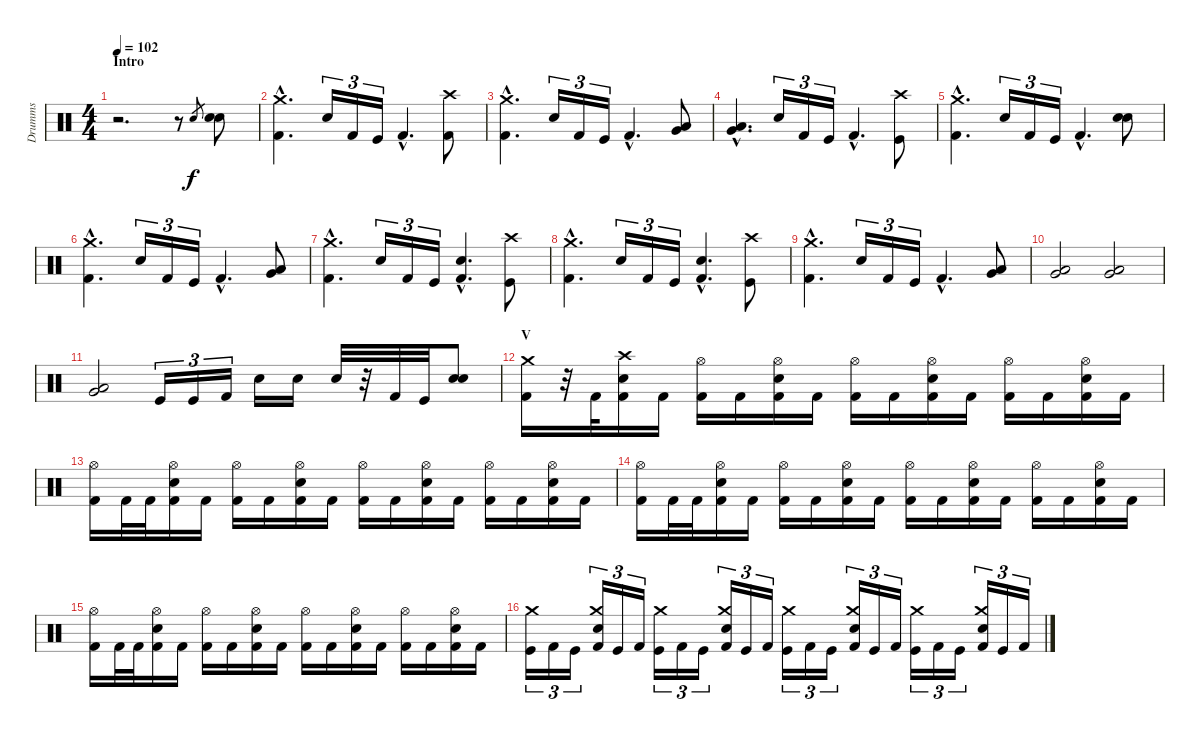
\track ("Drumms" "Drumms") {instrument percussion}
\staff {score}
\articulation defaults
\ts (4 4)
\section ("" "Intro")
\tempo 102
\clef neutral
\ks c
r.2{d dy f} r.8 "Electric Snare (hit)".8{gr} ("Electric Snare (hit)" "Snare (hit) 2").8 |
("Crash medium (hit)"{hac} "Kick (hit) 2"{hac}).4{d} "Snare (hit) 2".16{tu (3 2)} "Kick (hit) 2".16{tu (3 2)} "Kick (hit)".16{tu (3 2)} "Kick (hit) 2"{hac}.4{d} ("Crash high (hit)" "Kick (hit) 2").8 |
("Crash medium (hit)"{hac} "Kick (hit) 2"{hac}).4{d} "Snare (hit) 2".16{tu (3 2)} "Kick (hit) 2".16{tu (3 2)} "Kick (hit)".16{tu (3 2)} "Kick (hit) 2"{hac}.4{d} ("Very Low Tom (hit)" "Low Tom (hit)").8 |
("Very Low Tom (hit)"{hac} "Low Tom (hit)"{hac}).4{d} "Snare (hit) 2".16{tu (3 2)} "Kick (hit) 2".16{tu (3 2)} "Kick (hit)".16{tu (3 2)} "Kick (hit) 2"{hac}.4{d} ("Crash high (hit)" "Kick (hit)").8 |
("Crash medium (hit)"{hac} "Kick (hit) 2"{hac}).4{d} "Snare (hit) 2".16{tu (3 2)} "Kick (hit) 2".16{tu (3 2)} "Kick (hit)".16{tu (3 2)} "Kick (hit) 2"{hac}.4{d} ("Snare (hit) 2" "Snare (hit) 2").8 |
("Crash medium (hit)"{hac} "Kick (hit) 2"{hac}).4{d} "Snare (hit) 2".16{tu (3 2)} "Kick (hit) 2".16{tu (3 2)} "Kick (hit)".16{tu (3 2)} "Kick (hit) 2"{hac}.4{d} ("Low Tom (hit)" "Very Low Tom (hit)").8 |
("Crash medium (hit)"{hac} "Kick (hit) 2"{hac}).4{d} "Snare (hit) 2".16{tu (3 2)} "Kick (hit) 2".16{tu (3 2)} "Kick (hit)".16{tu (3 2)} ("Snare (hit) 2"{hac} "Kick (hit) 2"{hac}).4{d} ("Crash high (hit)" "Kick (hit)").8 |
("Crash medium (hit)"{hac} "Kick (hit) 2"{hac}).4{d} "Snare (hit) 2".16{tu (3 2)} "Kick (hit) 2".16{tu (3 2)} "Kick (hit)".16{tu (3 2)} ("Snare (hit) 2"{hac} "Kick (hit) 2"{hac}).4{d} ("Crash high (hit)" "Kick (hit)").8 |
("Crash medium (hit)"{hac} "Kick (hit) 2"{hac}).4{d} "Snare (hit) 2".16{tu (3 2)} "Kick (hit) 2".16{tu (3 2)} "Kick (hit)".16{tu (3 2)} "Kick (hit) 2"{hac}.4{d} ("Very Low Tom (hit)" "Low Tom (hit)").8 |
("Very Low Tom (hit)" "Low Tom (hit)").2 ("Very Low Tom (hit)" "Low Tom (hit)").2 |
("Low Tom (hit)" "Very Low Tom (hit)").2 "Kick (hit)".16{tu (3 2)} "Kick (hit)".16{tu (3 2)} "Kick (hit) 2".16{tu (3 2)} "Snare (hit) 2".16 "Snare (hit) 2".16 "Snare (hit) 2".32 r.32 "Kick (hit) 2".32 "Kick (hit)".32 ("Snare (hit) 2" "Snare (hit) 2").8 |
\section ("" "V")
("Crash medium (hit)" "Kick (hit) 2").16 r.32 "Kick (hit) 2".32 ("Crash high (hit)" "Snare (hit) 2" "Kick (hit) 2").16 "Kick (hit) 2".16 ("Hi-Hat (open)" "Kick (hit) 2").16 "Kick (hit) 2".16 ("Hi-Hat (open)" "Snare (hit) 2" "Kick (hit) 2").16 "Kick (hit) 2".16 ("Hi-Hat (open)" "Kick (hit) 2").16 "Kick (hit) 2".16 ("Hi-Hat (open)" "Snare (hit) 2" "Kick (hit) 2").16 "Kick (hit) 2".16 ("Hi-Hat (open)" "Kick (hit) 2").16 "Kick (hit) 2".16 ("Hi-Hat (open)" "Snare (hit) 2" "Kick (hit) 2").16 "Kick (hit) 2".16 |
("Hi-Hat (open)" "Kick (hit) 2").16 "Kick (hit) 2".32 "Kick (hit) 2".32 ("Hi-Hat (open)" "Snare (hit) 2" "Kick (hit) 2").16 "Kick (hit) 2".16 ("Hi-Hat (open)" "Kick (hit) 2").16 "Kick (hit) 2".16 ("Hi-Hat (open)" "Snare (hit) 2" "Kick (hit) 2").16 "Kick (hit) 2".16 ("Hi-Hat (open)" "Kick (hit) 2").16 "Kick (hit) 2".16 ("Hi-Hat (open)" "Snare (hit) 2" "Kick (hit) 2").16 "Kick (hit) 2".16 ("Hi-Hat (open)" "Kick (hit) 2").16 "Kick (hit) 2".16 ("Hi-Hat (open)" "Snare (hit) 2" "Kick (hit) 2").16 "Kick (hit) 2".16 |
("Hi-Hat (open)" "Kick (hit) 2").16 "Kick (hit) 2".32 "Kick (hit) 2".32 ("Hi-Hat (open)" "Snare (hit) 2" "Kick (hit) 2").16 "Kick (hit) 2".16 ("Hi-Hat (open)" "Kick (hit) 2").16 "Kick (hit) 2".16 ("Hi-Hat (open)" "Snare (hit) 2" "Kick (hit) 2").16 "Kick (hit) 2".16 ("Hi-Hat (open)" "Kick (hit) 2").16 "Kick (hit) 2".16 ("Hi-Hat (open)" "Snare (hit) 2" "Kick (hit) 2").16 "Kick (hit) 2".16 ("Hi-Hat (open)" "Kick (hit) 2").16 "Kick (hit) 2".16 ("Hi-Hat (open)" "Snare (hit) 2" "Kick (hit) 2").16 "Kick (hit) 2".16 |
("Hi-Hat (open)" "Kick (hit) 2").16 "Kick (hit) 2".32 "Kick (hit) 2".32 ("Hi-Hat (open)" "Snare (hit) 2" "Kick (hit) 2").16 "Kick (hit) 2".16 ("Hi-Hat (open)" "Kick (hit) 2").16 "Kick (hit) 2".16 ("Hi-Hat (open)" "Snare (hit) 2" "Kick (hit) 2").16 "Kick (hit) 2".16 ("Hi-Hat (open)" "Kick (hit) 2").16 "Kick (hit) 2".16 ("Hi-Hat (open)" "Snare (hit) 2" "Kick (hit) 2").16 "Kick (hit) 2".16 ("Hi-Hat (open)" "Kick (hit) 2").16 "Kick (hit) 2".16 ("Hi-Hat (open)" "Snare (hit) 2" "Kick (hit) 2").16 "Kick (hit) 2".16 |
("Crash medium (hit)" "Kick (hit)").16{tu (3 2)} "Kick (hit) 2".16{tu (3 2)} "Kick (hit)".16{tu (3 2)} ("Crash medium (hit)" "Snare (hit) 2" "Kick (hit) 2").16{tu (3 2)} "Kick (hit)".16{tu (3 2)} "Kick (hit) 2".16{tu (3 2)} ("Crash medium (hit)" "Kick (hit)").16{tu (3 2)} "Kick (hit) 2".16{tu (3 2)} "Kick (hit)".16{tu (3 2)} ("Crash medium (hit)" "Snare (hit) 2" "Kick (hit) 2").16{tu (3 2)} "Kick (hit)".16{tu (3 2)} "Kick (hit) 2".16{tu (3 2)} ("Crash medium (hit)" "Kick (hit)").16{tu (3 2)} "Kick (hit) 2".16{tu (3 2)} "Kick (hit)".16{tu (3 2)} ("Crash medium (hit)" "Snare (hit) 2" "Kick (hit) 2").16{tu (3 2)} "Kick (hit)".16{tu (3 2)} "Kick (hit) 2".16{tu (3 2)} ("Crash medium (hit)" "Kick (hit)").16{tu (3 2)} "Kick (hit) 2".16{tu (3 2)} "Kick (hit)".16{tu (3 2)} ("Crash medium (hit)" "Snare (hit) 2" "Kick (hit) 2").16{tu (3 2)} "Kick (hit)".16{tu (3 2)} "Kick (hit) 2".16{tu (3 2)}
